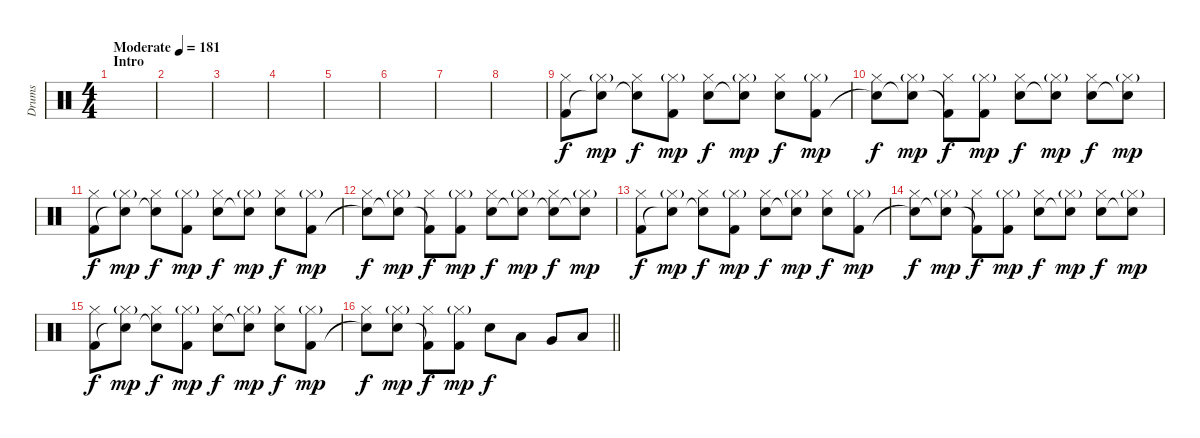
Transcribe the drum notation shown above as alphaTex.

\track ("Drums" "Drums") {instrument percussion}
\staff {score}
\articulation defaults
\ts (4 4)
\section ("" "Intro")
\tempo (181 "Moderate")
\clef neutral
\ks c
|
|
|
|
|
|
|
|
("Kick (hit) 2" "Hi-Hat (closed)").8 ("Snare (hit)"{t} "Hi-Hat (closed)"{g}).8{dy mp} ("Snare (hit)"{t} "Hi-Hat (closed)").8{dy f} ("Kick (hit) 2" "Hi-Hat (closed)"{g}).8{dy mp} ("Electric Snare (hit)" "Hi-Hat (closed)").8{dy f} ("Snare (hit)"{t} "Hi-Hat (closed)"{g}).8{dy mp} ("Electric Snare (hit)" "Hi-Hat (closed)").8{dy f} ("Kick (hit) 2" "Hi-Hat (closed)"{g}).8{dy mp} |
("Snare (hit)"{t} "Hi-Hat (closed)").8{dy f} ("Snare (hit)"{t} "Hi-Hat (closed)"{g}).8{dy mp} ("Kick (hit) 2"{t} "Hi-Hat (closed)").8{dy f} ("Kick (hit) 2" "Hi-Hat (closed)"{g}).8{dy mp} ("Electric Snare (hit)" "Hi-Hat (closed)").8{dy f} ("Electric Snare (hit)"{t} "Hi-Hat (closed)"{g}).8{dy mp} ("Electric Snare (hit)" "Hi-Hat (closed)").8{dy f} ("Snare (hit)"{t} "Hi-Hat (closed)"{g}).8{dy mp} |
("Kick (hit) 2" "Hi-Hat (closed)").8{dy f} ("Snare (hit)"{t} "Hi-Hat (closed)"{g}).8{dy mp} ("Snare (hit)"{t} "Hi-Hat (closed)").8{dy f} ("Kick (hit) 2" "Hi-Hat (closed)"{g}).8{dy mp} ("Electric Snare (hit)" "Hi-Hat (closed)").8{dy f} ("Snare (hit)"{t} "Hi-Hat (closed)"{g}).8{dy mp} ("Electric Snare (hit)" "Hi-Hat (closed)").8{dy f} ("Kick (hit) 2" "Hi-Hat (closed)"{g}).8{dy mp} |
("Snare (hit)"{t} "Hi-Hat (closed)").8{dy f} ("Snare (hit)"{t} "Hi-Hat (closed)"{g}).8{dy mp} ("Kick (hit) 2"{t} "Hi-Hat (closed)").8{dy f} ("Kick (hit) 2" "Hi-Hat (closed)"{g}).8{dy mp} ("Electric Snare (hit)" "Hi-Hat (closed)").8{dy f} ("Electric Snare (hit)"{t} "Hi-Hat (closed)"{g}).8{dy mp} ("Electric Snare (hit)"{t} "Hi-Hat (closed)").8{dy f} ("Snare (hit)"{t} "Hi-Hat (closed)"{g}).8{dy mp} |
("Kick (hit) 2" "Hi-Hat (closed)").8{dy f} ("Snare (hit)"{t} "Hi-Hat (closed)"{g}).8{dy mp} ("Snare (hit)"{t} "Hi-Hat (closed)").8{dy f} ("Kick (hit) 2" "Hi-Hat (closed)"{g}).8{dy mp} ("Electric Snare (hit)" "Hi-Hat (closed)").8{dy f} ("Snare (hit)"{t} "Hi-Hat (closed)"{g}).8{dy mp} ("Electric Snare (hit)" "Hi-Hat (closed)").8{dy f} ("Kick (hit) 2" "Hi-Hat (closed)"{g}).8{dy mp} |
("Snare (hit)"{t} "Hi-Hat (closed)").8{dy f} ("Snare (hit)"{t} "Hi-Hat (closed)"{g}).8{dy mp} ("Kick (hit) 2"{t} "Hi-Hat (closed)").8{dy f} ("Kick (hit) 2" "Hi-Hat (closed)"{g}).8{dy mp} ("Electric Snare (hit)" "Hi-Hat (closed)").8{dy f} ("Electric Snare (hit)"{t} "Hi-Hat (closed)"{g}).8{dy mp} ("Electric Snare (hit)" "Hi-Hat (closed)").8{dy f} ("Snare (hit)"{t} "Hi-Hat (closed)"{g}).8{dy mp} |
("Kick (hit) 2" "Hi-Hat (closed)").8{dy f} ("Snare (hit)"{t} "Hi-Hat (closed)"{g}).8{dy mp} ("Snare (hit)"{t} "Hi-Hat (closed)").8{dy f} ("Kick (hit) 2" "Hi-Hat (closed)"{g}).8{dy mp} ("Electric Snare (hit)" "Hi-Hat (closed)").8{dy f} ("Snare (hit)"{t} "Hi-Hat (closed)"{g}).8{dy mp} ("Electric Snare (hit)" "Hi-Hat (closed)").8{dy f} ("Kick (hit) 2" "Hi-Hat (closed)"{g}).8{dy mp} |
\barLineRight lightlight
("Snare (hit)"{t} "Hi-Hat (closed)").8{dy f} ("Electric Snare (hit)" "Hi-Hat (closed)"{g}).8{dy mp} ("Kick (hit) 2"{t} "Hi-Hat (closed)").8{dy f} ("Kick (hit) 2" "Hi-Hat (closed)"{g}).8{dy mp} "Electric Snare (hit)".8{dy f} "Low Tom (hit)".8 "Very Low Tom (hit)".8 "Low Floor Tom (hit)".8
